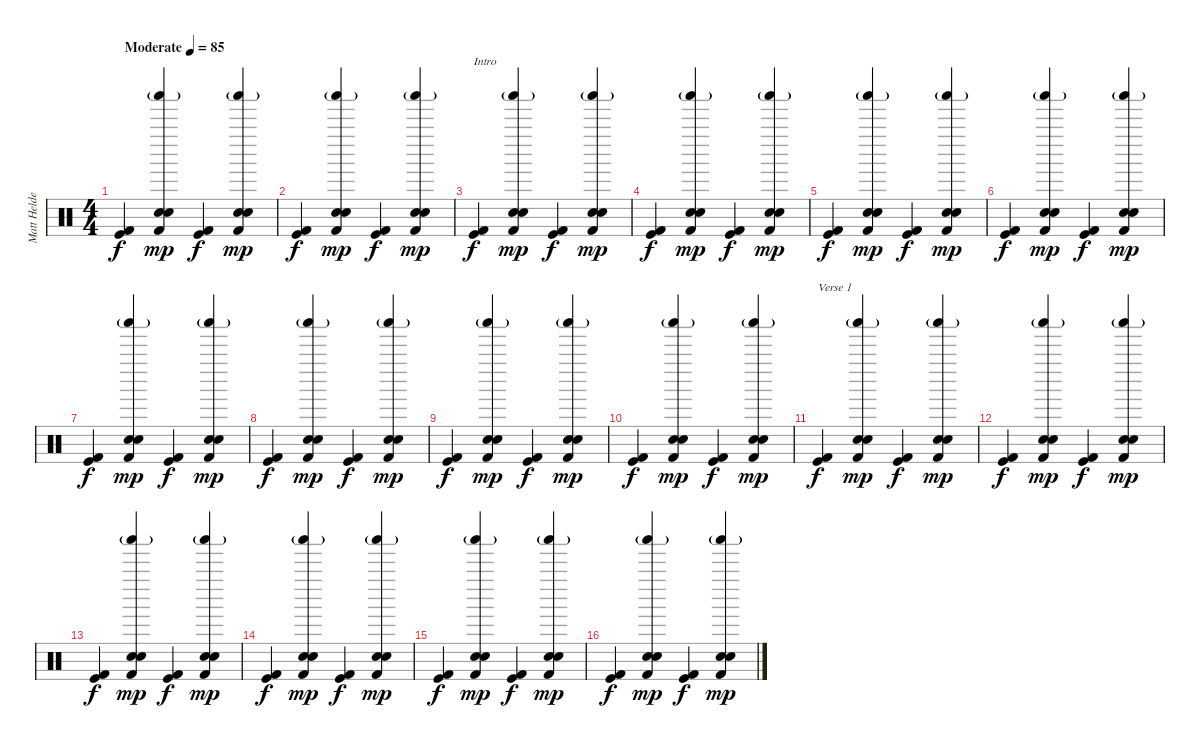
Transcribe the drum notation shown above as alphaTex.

\track ("Matt Helders" "Matt Helde") {instrument percussion}
\staff {score}
\articulation defaults
\ts (4 4)
\tempo (85 "Moderate")
\clef neutral
\ks c
("Kick (hit)" "Kick (hit) 2").4{dy f} ("Hand Clap (hit)" "Shaker (hit)"{g} "Electric Snare (hit)" "Kick (hit) 2").4{dy mp} ("Kick (hit)" "Kick (hit) 2").4{dy f} ("Hand Clap (hit)" "Shaker (hit)"{g} "Electric Snare (hit)" "Kick (hit) 2").4{dy mp} |
("Kick (hit)" "Kick (hit) 2").4{dy f} ("Hand Clap (hit)" "Shaker (hit)"{g} "Electric Snare (hit)" "Kick (hit) 2").4{dy mp} ("Kick (hit)" "Kick (hit) 2").4{dy f} ("Hand Clap (hit)" "Shaker (hit)"{g} "Electric Snare (hit)" "Kick (hit) 2").4{dy mp} |
("Kick (hit)" "Kick (hit) 2").4{txt "Intro" dy f} ("Hand Clap (hit)" "Shaker (hit)"{g} "Electric Snare (hit)" "Kick (hit) 2").4{dy mp} ("Kick (hit)" "Kick (hit) 2").4{dy f} ("Hand Clap (hit)" "Shaker (hit)"{g} "Electric Snare (hit)" "Kick (hit) 2").4{dy mp} |
("Kick (hit)" "Kick (hit) 2").4{dy f} ("Hand Clap (hit)" "Shaker (hit)"{g} "Electric Snare (hit)" "Kick (hit) 2").4{dy mp} ("Kick (hit)" "Kick (hit) 2").4{dy f} ("Hand Clap (hit)" "Shaker (hit)"{g} "Electric Snare (hit)" "Kick (hit) 2").4{dy mp} |
("Kick (hit)" "Kick (hit) 2").4{dy f} ("Hand Clap (hit)" "Shaker (hit)"{g} "Electric Snare (hit)" "Kick (hit) 2").4{dy mp} ("Kick (hit)" "Kick (hit) 2").4{dy f} ("Hand Clap (hit)" "Shaker (hit)"{g} "Electric Snare (hit)" "Kick (hit) 2").4{dy mp} |
("Kick (hit)" "Kick (hit) 2").4{dy f} ("Hand Clap (hit)" "Shaker (hit)"{g} "Electric Snare (hit)" "Kick (hit) 2").4{dy mp} ("Kick (hit)" "Kick (hit) 2").4{dy f} ("Hand Clap (hit)" "Shaker (hit)"{g} "Electric Snare (hit)" "Kick (hit) 2").4{dy mp} |
("Kick (hit)" "Kick (hit) 2").4{dy f} ("Hand Clap (hit)" "Shaker (hit)"{g} "Electric Snare (hit)" "Kick (hit) 2").4{dy mp} ("Kick (hit)" "Kick (hit) 2").4{dy f} ("Hand Clap (hit)" "Shaker (hit)"{g} "Electric Snare (hit)" "Kick (hit) 2").4{dy mp} |
("Kick (hit)" "Kick (hit) 2").4{dy f} ("Hand Clap (hit)" "Shaker (hit)"{g} "Electric Snare (hit)" "Kick (hit) 2").4{dy mp} ("Kick (hit)" "Kick (hit) 2").4{dy f} ("Hand Clap (hit)" "Shaker (hit)"{g} "Electric Snare (hit)" "Kick (hit) 2").4{dy mp} |
("Kick (hit)" "Kick (hit) 2").4{dy f} ("Hand Clap (hit)" "Shaker (hit)"{g} "Electric Snare (hit)" "Kick (hit) 2").4{dy mp} ("Kick (hit)" "Kick (hit) 2").4{dy f} ("Hand Clap (hit)" "Shaker (hit)"{g} "Electric Snare (hit)" "Kick (hit) 2").4{dy mp} |
("Kick (hit)" "Kick (hit) 2").4{dy f} ("Hand Clap (hit)" "Shaker (hit)"{g} "Electric Snare (hit)" "Kick (hit) 2").4{dy mp} ("Kick (hit)" "Kick (hit) 2").4{dy f} ("Hand Clap (hit)" "Shaker (hit)"{g} "Electric Snare (hit)" "Kick (hit) 2").4{dy mp} |
("Kick (hit)" "Kick (hit) 2").4{txt "Verse 1" dy f} ("Hand Clap (hit)" "Shaker (hit)"{g} "Electric Snare (hit)" "Kick (hit) 2").4{dy mp} ("Kick (hit)" "Kick (hit) 2").4{dy f} ("Hand Clap (hit)" "Shaker (hit)"{g} "Electric Snare (hit)" "Kick (hit) 2").4{dy mp} |
("Kick (hit)" "Kick (hit) 2").4{dy f} ("Hand Clap (hit)" "Shaker (hit)"{g} "Electric Snare (hit)" "Kick (hit) 2").4{dy mp} ("Kick (hit)" "Kick (hit) 2").4{dy f} ("Hand Clap (hit)" "Shaker (hit)"{g} "Electric Snare (hit)" "Kick (hit) 2").4{dy mp} |
("Kick (hit)" "Kick (hit) 2").4{dy f} ("Hand Clap (hit)" "Shaker (hit)"{g} "Electric Snare (hit)" "Kick (hit) 2").4{dy mp} ("Kick (hit)" "Kick (hit) 2").4{dy f} ("Hand Clap (hit)" "Shaker (hit)"{g} "Electric Snare (hit)" "Kick (hit) 2").4{dy mp} |
("Kick (hit)" "Kick (hit) 2").4{dy f} ("Hand Clap (hit)" "Shaker (hit)"{g} "Electric Snare (hit)" "Kick (hit) 2").4{dy mp} ("Kick (hit)" "Kick (hit) 2").4{dy f} ("Hand Clap (hit)" "Shaker (hit)"{g} "Electric Snare (hit)" "Kick (hit) 2").4{dy mp} |
("Kick (hit)" "Kick (hit) 2").4{dy f} ("Hand Clap (hit)" "Shaker (hit)"{g} "Electric Snare (hit)" "Kick (hit) 2").4{dy mp} ("Kick (hit)" "Kick (hit) 2").4{dy f} ("Hand Clap (hit)" "Shaker (hit)"{g} "Electric Snare (hit)" "Kick (hit) 2").4{dy mp} |
("Kick (hit)" "Kick (hit) 2").4{dy f} ("Hand Clap (hit)" "Shaker (hit)"{g} "Electric Snare (hit)" "Kick (hit) 2").4{dy mp} ("Kick (hit)" "Kick (hit) 2").4{dy f} ("Hand Clap (hit)" "Shaker (hit)"{g} "Electric Snare (hit)" "Kick (hit) 2").4{dy mp}
